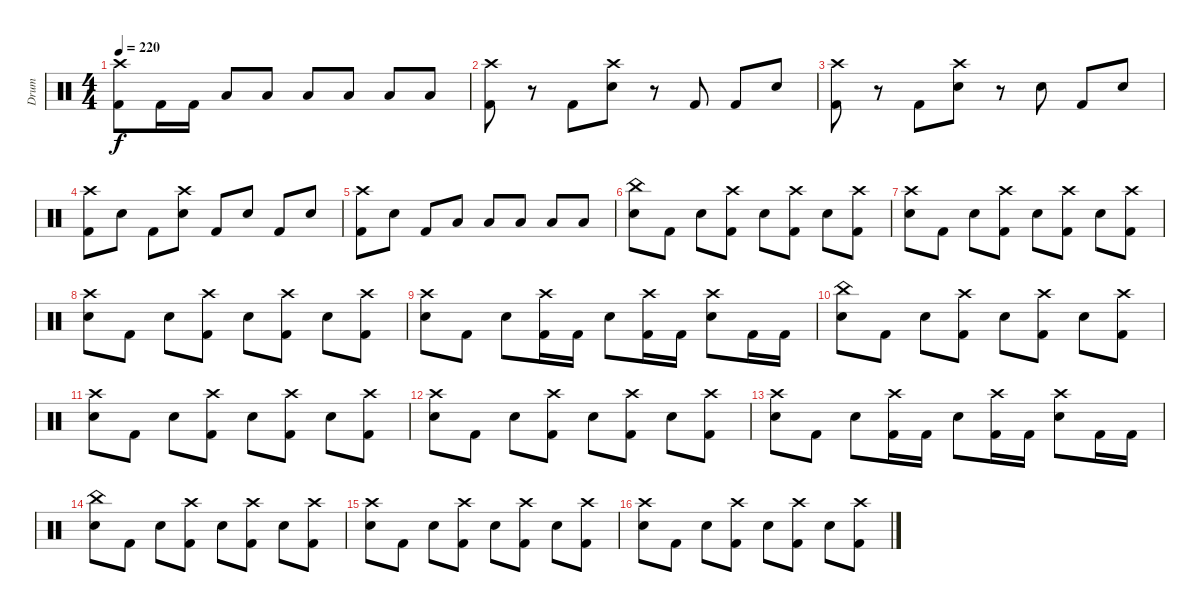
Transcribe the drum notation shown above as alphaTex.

\track ("Drum" "Drum") {instrument percussion}
\staff {score}
\articulation defaults
\ts (4 4)
\tempo 220
\clef neutral
\ks c
("Crash high (hit)" "Kick (hit) 2").8{dy f} "Kick (hit) 2".16 "Kick (hit) 2".16 "Low Tom (hit)".8 "Low Tom (hit)".8 "Low Tom (hit)".8 "Low Tom (hit)".8 "Low Tom (hit)".8 "Low Tom (hit)".8 |
("Crash high (hit)" "Kick (hit) 2").8 r.8 "Kick (hit) 2".8 ("Crash high (hit)" "Snare (hit) 2").8 r.8 "Kick (hit) 2".8 "Kick (hit) 2".8 "Snare (hit) 2".8 |
("Crash high (hit)" "Kick (hit) 2").8 r.8 "Kick (hit) 2".8 ("Crash high (hit)" "Snare (hit) 2").8 r.8 "Snare (hit) 2".8 "Kick (hit) 2".8 "Snare (hit) 2".8 |
("Crash high (hit)" "Kick (hit) 2").8 "Snare (hit) 2".8 "Kick (hit) 2".8 ("Crash high (hit)" "Snare (hit) 2").8 "Kick (hit) 2".8 "Snare (hit) 2".8 "Kick (hit) 2".8 "Snare (hit) 2".8 |
("Crash high (hit)" "Kick (hit) 2").8 "Snare (hit) 2".8 "Kick (hit) 2".8 "Low Tom (hit)".8 "Low Tom (hit)".8 "Low Tom (hit)".8 "Low Tom (hit)".8 "Low Tom (hit)".8 |
("China (hit)" "Snare (hit) 2").8 "Kick (hit) 2".8 "Snare (hit) 2".8 ("Crash high (hit)" "Kick (hit) 2").8 "Snare (hit) 2".8 ("Crash high (hit)" "Kick (hit) 2").8 "Snare (hit) 2".8 ("Crash high (hit)" "Kick (hit) 2").8 |
("Crash high (hit)" "Snare (hit) 2").8 "Kick (hit) 2".8 "Snare (hit) 2".8 ("Crash high (hit)" "Kick (hit) 2").8 "Snare (hit) 2".8 ("Crash high (hit)" "Kick (hit) 2").8 "Snare (hit) 2".8 ("Crash high (hit)" "Kick (hit) 2").8 |
("Crash high (hit)" "Snare (hit) 2").8 "Kick (hit) 2".8 "Snare (hit) 2".8 ("Crash high (hit)" "Kick (hit) 2").8 "Snare (hit) 2".8 ("Crash high (hit)" "Kick (hit) 2").8 "Snare (hit) 2".8 ("Crash high (hit)" "Kick (hit) 2").8 |
("Crash high (hit)" "Snare (hit) 2").8 "Kick (hit) 2".8 "Snare (hit) 2".8 ("Crash high (hit)" "Kick (hit) 2").16 "Kick (hit) 2".16 "Snare (hit) 2".8 ("Crash high (hit)" "Kick (hit) 2").16 "Kick (hit) 2".16 ("Crash high (hit)" "Snare (hit) 2").8 "Kick (hit) 2".16 "Kick (hit) 2".16 |
("China (hit)" "Snare (hit) 2").8 "Kick (hit) 2".8 "Snare (hit) 2".8 ("Crash high (hit)" "Kick (hit) 2").8 "Snare (hit) 2".8 ("Crash high (hit)" "Kick (hit) 2").8 "Snare (hit) 2".8 ("Crash high (hit)" "Kick (hit) 2").8 |
("Crash high (hit)" "Snare (hit) 2").8 "Kick (hit) 2".8 "Snare (hit) 2".8 ("Crash high (hit)" "Kick (hit) 2").8 "Snare (hit) 2".8 ("Crash high (hit)" "Kick (hit) 2").8 "Snare (hit) 2".8 ("Crash high (hit)" "Kick (hit) 2").8 |
("Crash high (hit)" "Snare (hit) 2").8 "Kick (hit) 2".8 "Snare (hit) 2".8 ("Crash high (hit)" "Kick (hit) 2").8 "Snare (hit) 2".8 ("Crash high (hit)" "Kick (hit) 2").8 "Snare (hit) 2".8 ("Crash high (hit)" "Kick (hit) 2").8 |
("Crash high (hit)" "Snare (hit) 2").8 "Kick (hit) 2".8 "Snare (hit) 2".8 ("Crash high (hit)" "Kick (hit) 2").16 "Kick (hit) 2".16 "Snare (hit) 2".8 ("Crash high (hit)" "Kick (hit) 2").16 "Kick (hit) 2".16 ("Crash high (hit)" "Snare (hit) 2").8 "Kick (hit) 2".16 "Kick (hit) 2".16 |
("China (hit)" "Snare (hit) 2").8 "Kick (hit) 2".8 "Snare (hit) 2".8 ("Crash high (hit)" "Kick (hit) 2").8 "Snare (hit) 2".8 ("Crash high (hit)" "Kick (hit) 2").8 "Snare (hit) 2".8 ("Crash high (hit)" "Kick (hit) 2").8 |
("Crash high (hit)" "Snare (hit) 2").8 "Kick (hit) 2".8 "Snare (hit) 2".8 ("Crash high (hit)" "Kick (hit) 2").8 "Snare (hit) 2".8 ("Crash high (hit)" "Kick (hit) 2").8 "Snare (hit) 2".8 ("Crash high (hit)" "Kick (hit) 2").8 |
("Crash high (hit)" "Snare (hit) 2").8 "Kick (hit) 2".8 "Snare (hit) 2".8 ("Crash high (hit)" "Kick (hit) 2").8 "Snare (hit) 2".8 ("Crash high (hit)" "Kick (hit) 2").8 "Snare (hit) 2".8 ("Crash high (hit)" "Kick (hit) 2").8
